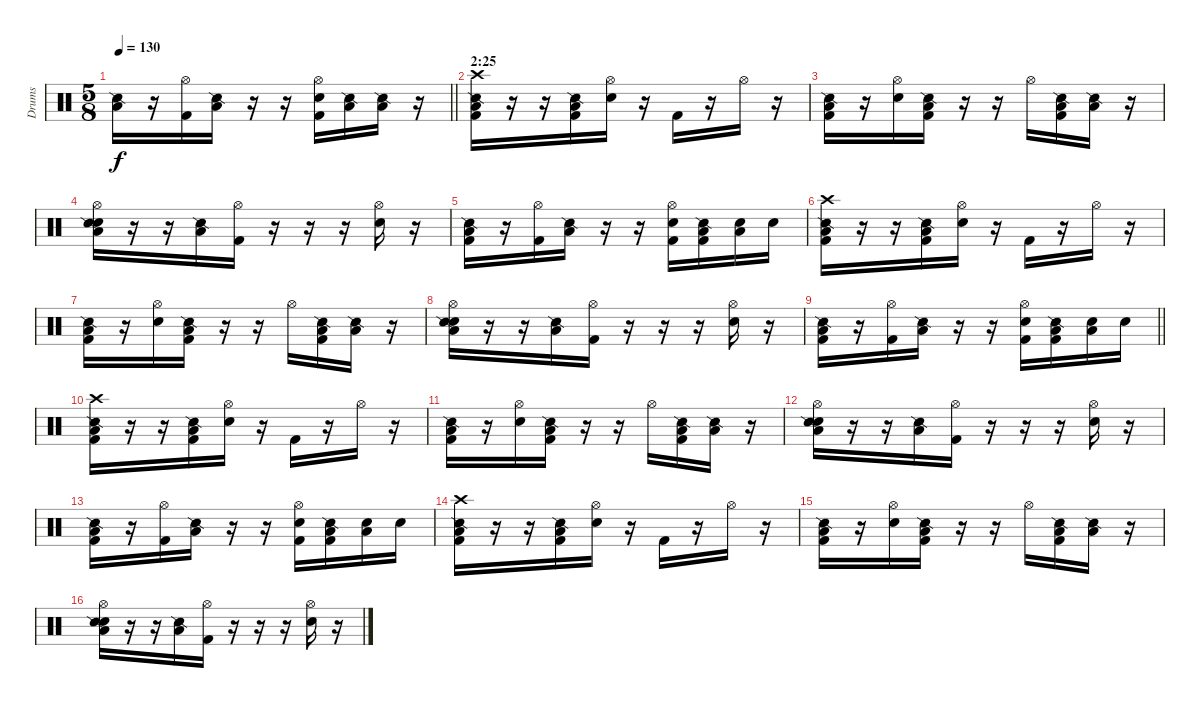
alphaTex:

\track ("Drums" "Drums") {instrument percussion}
\staff {score}
\articulation defaults
\ts (5 8)
\tempo 130
\clef neutral
\barLineRight lightlight
\ks c
("Low Floor Tom (hit)" "Snare (side stick) 2").16{dy f} r.16 ("Hi-Hat (open)" "Kick (hit) 2").16 ("Low Floor Tom (hit)" "Snare (side stick) 2").16 r.16 r.16 ("Hi-Hat (open)" "Electric Snare (hit)" "Kick (hit) 2").16 ("Low Floor Tom (hit)" "Snare (side stick) 2").16 ("Low Floor Tom (hit)" "Snare (side stick) 2").16 r.16 |
\section ("" "2:25")
("Crash high (hit)" "Low Floor Tom (hit)" "Snare (side stick) 2" "Kick (hit) 2").16 r.16 r.16 ("Low Floor Tom (hit)" "Snare (side stick) 2" "Kick (hit) 2").16 ("Hi-Hat (open)" "Electric Snare (hit)").16 r.16 "Kick (hit) 2".16 r.16 "Hi-Hat (open)".16 r.16 |
("Low Floor Tom (hit)" "Snare (side stick) 2" "Kick (hit) 2").16 r.16 ("Hi-Hat (open)" "Electric Snare (hit)").16 ("Low Floor Tom (hit)" "Snare (side stick) 2" "Kick (hit) 2").16 r.16 r.16 "Hi-Hat (open)".16 ("Low Floor Tom (hit)" "Snare (side stick) 2" "Kick (hit) 2").16 ("Low Floor Tom (hit)" "Snare (side stick) 2").16 r.16 |
("Hi-Hat (open)" "Electric Snare (hit)" "Low Floor Tom (hit)" "Snare (side stick) 2").16 r.16 r.16 ("Low Floor Tom (hit)" "Snare (side stick) 2").16 ("Hi-Hat (open)" "Kick (hit) 2").16 r.16 r.16 r.16 ("Hi-Hat (open)" "Electric Snare (hit)").16 r.16 |
("Low Floor Tom (hit)" "Snare (side stick) 2" "Kick (hit) 2").16 r.16 ("Hi-Hat (open)" "Kick (hit) 2").16 ("Low Floor Tom (hit)" "Snare (side stick) 2").16 r.16 r.16 ("Hi-Hat (open)" "Electric Snare (hit)" "Kick (hit) 2").16 ("Low Floor Tom (hit)" "Snare (side stick) 2" "Kick (hit) 2").16 ("Low Floor Tom (hit)" "Electric Snare (hit)").16 "Electric Snare (hit)".16 |
("Crash high (hit)" "Low Floor Tom (hit)" "Snare (side stick) 2" "Kick (hit) 2").16 r.16 r.16 ("Low Floor Tom (hit)" "Snare (side stick) 2" "Kick (hit) 2").16 ("Hi-Hat (open)" "Electric Snare (hit)").16 r.16 "Kick (hit) 2".16 r.16 "Hi-Hat (open)".16 r.16 |
("Low Floor Tom (hit)" "Snare (side stick) 2" "Kick (hit) 2").16 r.16 ("Hi-Hat (open)" "Electric Snare (hit)").16 ("Low Floor Tom (hit)" "Snare (side stick) 2" "Kick (hit) 2").16 r.16 r.16 "Hi-Hat (open)".16 ("Low Floor Tom (hit)" "Snare (side stick) 2" "Kick (hit) 2").16 ("Low Floor Tom (hit)" "Snare (side stick) 2").16 r.16 |
("Hi-Hat (open)" "Electric Snare (hit)" "Low Floor Tom (hit)" "Snare (side stick) 2").16 r.16 r.16 ("Low Floor Tom (hit)" "Snare (side stick) 2").16 ("Hi-Hat (open)" "Kick (hit) 2").16 r.16 r.16 r.16 ("Hi-Hat (open)" "Electric Snare (hit)").16 r.16 |
\barLineRight lightlight
("Low Floor Tom (hit)" "Snare (side stick) 2" "Kick (hit) 2").16 r.16 ("Hi-Hat (open)" "Kick (hit) 2").16 ("Low Floor Tom (hit)" "Snare (side stick) 2").16 r.16 r.16 ("Hi-Hat (open)" "Electric Snare (hit)" "Kick (hit) 2").16 ("Low Floor Tom (hit)" "Snare (side stick) 2" "Kick (hit) 2").16 ("Low Floor Tom (hit)" "Electric Snare (hit)").16 "Electric Snare (hit)".16 |
("Crash high (hit)" "Low Floor Tom (hit)" "Snare (side stick) 2" "Kick (hit) 2").16 r.16 r.16 ("Low Floor Tom (hit)" "Snare (side stick) 2" "Kick (hit) 2").16 ("Hi-Hat (open)" "Electric Snare (hit)").16 r.16 "Kick (hit) 2".16 r.16 "Hi-Hat (open)".16 r.16 |
("Low Floor Tom (hit)" "Snare (side stick) 2" "Kick (hit) 2").16 r.16 ("Hi-Hat (open)" "Electric Snare (hit)").16 ("Low Floor Tom (hit)" "Snare (side stick) 2" "Kick (hit) 2").16 r.16 r.16 "Hi-Hat (open)".16 ("Low Floor Tom (hit)" "Snare (side stick) 2" "Kick (hit) 2").16 ("Low Floor Tom (hit)" "Snare (side stick) 2").16 r.16 |
("Hi-Hat (open)" "Electric Snare (hit)" "Low Floor Tom (hit)" "Snare (side stick) 2").16 r.16 r.16 ("Low Floor Tom (hit)" "Snare (side stick) 2").16 ("Hi-Hat (open)" "Kick (hit) 2").16 r.16 r.16 r.16 ("Hi-Hat (open)" "Electric Snare (hit)").16 r.16 |
("Low Floor Tom (hit)" "Snare (side stick) 2" "Kick (hit) 2").16 r.16 ("Hi-Hat (open)" "Kick (hit) 2").16 ("Low Floor Tom (hit)" "Snare (side stick) 2").16 r.16 r.16 ("Hi-Hat (open)" "Electric Snare (hit)" "Kick (hit) 2").16 ("Low Floor Tom (hit)" "Snare (side stick) 2" "Kick (hit) 2").16 ("Low Floor Tom (hit)" "Electric Snare (hit)").16 "Electric Snare (hit)".16 |
("Crash high (hit)" "Low Floor Tom (hit)" "Snare (side stick) 2" "Kick (hit) 2").16 r.16 r.16 ("Low Floor Tom (hit)" "Snare (side stick) 2" "Kick (hit) 2").16 ("Hi-Hat (open)" "Electric Snare (hit)").16 r.16 "Kick (hit) 2".16 r.16 "Hi-Hat (open)".16 r.16 |
("Low Floor Tom (hit)" "Snare (side stick) 2" "Kick (hit) 2").16 r.16 ("Hi-Hat (open)" "Electric Snare (hit)").16 ("Low Floor Tom (hit)" "Snare (side stick) 2" "Kick (hit) 2").16 r.16 r.16 "Hi-Hat (open)".16 ("Low Floor Tom (hit)" "Snare (side stick) 2" "Kick (hit) 2").16 ("Low Floor Tom (hit)" "Snare (side stick) 2").16 r.16 |
("Hi-Hat (open)" "Electric Snare (hit)" "Low Floor Tom (hit)" "Snare (side stick) 2").16 r.16 r.16 ("Low Floor Tom (hit)" "Snare (side stick) 2").16 ("Hi-Hat (open)" "Kick (hit) 2").16 r.16 r.16 r.16 ("Hi-Hat (open)" "Electric Snare (hit)").16 r.16
